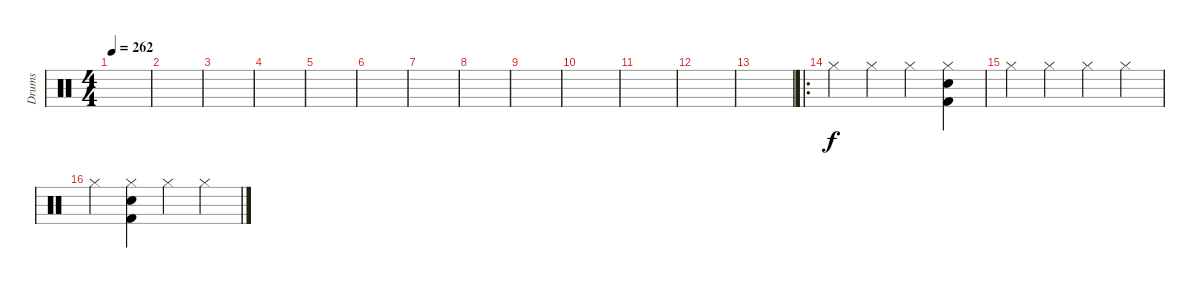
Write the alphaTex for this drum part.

\track ("Drums" "Drums") {instrument percussion}
\staff {score}
\articulation defaults
\ts (4 4)
\tempo 262
\clef neutral
\ks c
|
|
|
|
|
|
|
|
|
|
|
|
|
\ro "Hi-Hat (closed)".4 "Hi-Hat (closed)".4 "Hi-Hat (closed)".4
("Electric Snare (hit)" "Hi-Hat (closed)" "Kick (hit) 2").4 |
"Hi-Hat (closed)".4 "Hi-Hat (closed)".4 "Hi-Hat (closed)".4 "Hi-Hat (closed)".4 |
"Hi-Hat (closed)".4 ("Electric Snare (hit)" "Hi-Hat (closed)" "Kick (hit) 2").4 "Hi-Hat (closed)".4 "Hi-Hat (closed)".4
